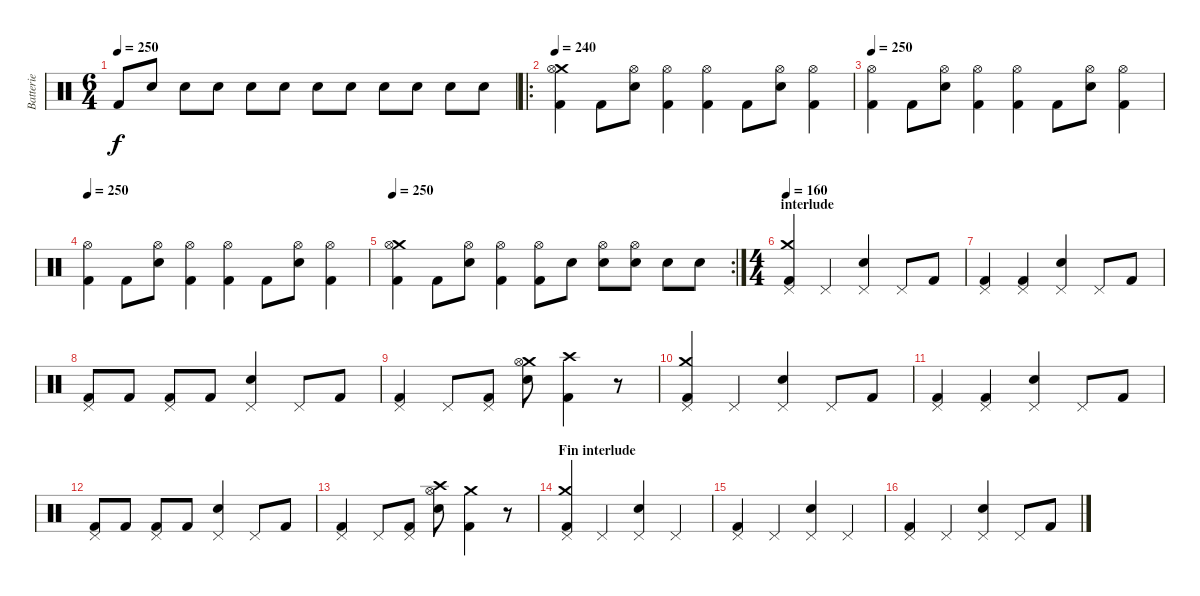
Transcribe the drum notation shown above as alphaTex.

\track ("Batterie" "Batterie") {instrument percussion}
\staff {score}
\articulation defaults
\ts (6 4)
\tempo 250
\clef neutral
\ks c "Kick (hit) 2".8{dy f} "Electric Snare (hit)".8 "Electric Snare (hit)".8 "Electric Snare (hit)".8 "Electric Snare (hit)".8 "Electric Snare (hit)".8 "Electric Snare (hit)".8 "Electric Snare (hit)".8 "Electric Snare (hit)".8 "Electric Snare (hit)".8 "Electric Snare (hit)".8 "Electric Snare (hit)".8
|
\ro
\tempo 240
("Crash medium (hit)" "Hi-Hat (open)" "Kick (hit) 2").4 "Kick (hit) 2".8 ("Hi-Hat (open)" "Electric Snare (hit)").8 ("Hi-Hat (open)" "Kick (hit) 2").4 ("Hi-Hat (open)" "Kick (hit) 2").4 "Kick (hit) 2".8 ("Hi-Hat (open)" "Electric Snare (hit)").8 ("Hi-Hat (open)" "Kick (hit) 2").4 |
\tempo 250
("Hi-Hat (open)" "Kick (hit) 2").4 "Kick (hit) 2".8 ("Hi-Hat (open)" "Electric Snare (hit)").8 ("Hi-Hat (open)" "Kick (hit) 2").4 ("Hi-Hat (open)" "Kick (hit) 2").4 "Kick (hit) 2".8 ("Hi-Hat (open)" "Electric Snare (hit)").8 ("Hi-Hat (open)" "Kick (hit) 2").4 |
\tempo 250
("Hi-Hat (open)" "Kick (hit) 2").4 "Kick (hit) 2".8 ("Hi-Hat (open)" "Electric Snare (hit)").8 ("Hi-Hat (open)" "Kick (hit) 2").4 ("Hi-Hat (open)" "Kick (hit) 2").4 "Kick (hit) 2".8 ("Hi-Hat (open)" "Electric Snare (hit)").8 ("Hi-Hat (open)" "Kick (hit) 2").4 |
\rc 2
\tempo 250
("Crash medium (hit)" "Hi-Hat (open)" "Kick (hit) 2").4 "Kick (hit) 2".8 ("Hi-Hat (open)" "Electric Snare (hit)").8 ("Hi-Hat (open)" "Kick (hit) 2").4 ("Hi-Hat (open)" "Kick (hit) 2").8 "Electric Snare (hit)".8 ("Hi-Hat (open)" "Electric Snare (hit)").8 ("Hi-Hat (open)" "Electric Snare (hit)").8 "Electric Snare (hit)".8 "Electric Snare (hit)".8 |
\ts (4 4)
\section ("" "interlude")
\tempo 160
("Crash medium (hit)" "Pedal Hi-Hat (hit)" "Kick (hit) 2").4 "Pedal Hi-Hat (hit)".4 ("Pedal Hi-Hat (hit)" "Electric Snare (hit)").4 "Pedal Hi-Hat (hit)".8 "Kick (hit) 2".8 |
("Pedal Hi-Hat (hit)" "Kick (hit) 2").4 ("Pedal Hi-Hat (hit)" "Kick (hit) 2").4 ("Pedal Hi-Hat (hit)" "Electric Snare (hit)").4 "Pedal Hi-Hat (hit)".8 "Kick (hit) 2".8 |
("Pedal Hi-Hat (hit)" "Kick (hit) 2").8 "Kick (hit) 2".8 ("Pedal Hi-Hat (hit)" "Kick (hit) 2").8 "Kick (hit) 2".8 ("Pedal Hi-Hat (hit)" "Electric Snare (hit)").4 "Pedal Hi-Hat (hit)".8 "Kick (hit) 2".8 |
("Pedal Hi-Hat (hit)" "Kick (hit) 2").4 "Pedal Hi-Hat (hit)".8 ("Pedal Hi-Hat (hit)" "Kick (hit) 2").8 ("Crash medium (hit)" "Hi-Hat (open)" "Electric Snare (hit)").8 ("Crash high (hit)" "Kick (hit) 2").4 r.8 |
("Crash medium (hit)" "Pedal Hi-Hat (hit)" "Kick (hit) 2").4 "Pedal Hi-Hat (hit)".4 ("Pedal Hi-Hat (hit)" "Electric Snare (hit)").4 "Pedal Hi-Hat (hit)".8 "Kick (hit) 2".8 |
("Pedal Hi-Hat (hit)" "Kick (hit) 2").4 ("Pedal Hi-Hat (hit)" "Kick (hit) 2").4 ("Pedal Hi-Hat (hit)" "Electric Snare (hit)").4 "Pedal Hi-Hat (hit)".8 "Kick (hit) 2".8 |
("Pedal Hi-Hat (hit)" "Kick (hit) 2").8 "Kick (hit) 2".8 ("Pedal Hi-Hat (hit)" "Kick (hit) 2").8 "Kick (hit) 2".8 ("Pedal Hi-Hat (hit)" "Electric Snare (hit)").4 "Pedal Hi-Hat (hit)".8 "Kick (hit) 2".8 |
("Pedal Hi-Hat (hit)" "Kick (hit) 2").4 "Pedal Hi-Hat (hit)".8 ("Pedal Hi-Hat (hit)" "Kick (hit) 2").8 ("Crash high (hit)" "Hi-Hat (open)" "Electric Snare (hit)").8 ("Crash medium (hit)" "Kick (hit) 2").4 r.8 |
\section ("" "Fin interlude")
("Crash medium (hit)" "Pedal Hi-Hat (hit)" "Kick (hit) 2").4 "Pedal Hi-Hat (hit)".4 ("Pedal Hi-Hat (hit)" "Electric Snare (hit)").4 "Pedal Hi-Hat (hit)".4 |
("Pedal Hi-Hat (hit)" "Kick (hit) 2").4 "Pedal Hi-Hat (hit)".4 ("Pedal Hi-Hat (hit)" "Electric Snare (hit)").4 "Pedal Hi-Hat (hit)".4 |
("Pedal Hi-Hat (hit)" "Kick (hit) 2").4 "Pedal Hi-Hat (hit)".4 ("Pedal Hi-Hat (hit)" "Electric Snare (hit)").4 "Pedal Hi-Hat (hit)".8 "Kick (hit) 2".8
